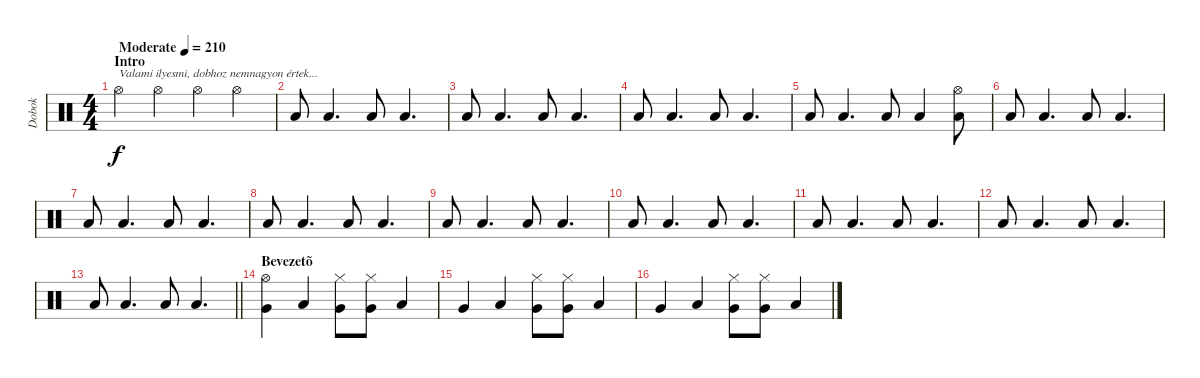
\track ("Dobok" "Dobok") {instrument percussion}
\staff {score}
\articulation defaults
\ts (4 4)
\section ("" "Intro")
\tempo (210 "Moderate")
\clef neutral
\ks c "Hi-Hat (open)".4{txt "Valami ilyesmi, dobhoz nemnagyon értek..." dy f} "Hi-Hat (open)".4 "Hi-Hat (open)".4 "Hi-Hat (open)".4
|
"Low Floor Tom (hit)".8 "Low Floor Tom (hit)".4{d} "Low Floor Tom (hit)".8 "Low Floor Tom (hit)".4{d} |
"Low Tom (hit)".8 "Low Tom (hit)".4{d} "Low Tom (hit)".8 "Low Tom (hit)".4{d} |
"Low Floor Tom (hit)".8 "Low Floor Tom (hit)".4{d} "Low Floor Tom (hit)".8 "Low Floor Tom (hit)".4{d} |
"Low Tom (hit)".8 "Low Tom (hit)".4{d} "Low Tom (hit)".8 "Low Tom (hit)".4 ("Hi-Hat (open)" "Low Tom (hit)").8 |
"Low Floor Tom (hit)".8 "Low Floor Tom (hit)".4{d} "Low Floor Tom (hit)".8 "Low Floor Tom (hit)".4{d} |
"Low Tom (hit)".8 "Low Tom (hit)".4{d} "Low Tom (hit)".8 "Low Tom (hit)".4{d} |
"Low Floor Tom (hit)".8 "Low Floor Tom (hit)".4{d} "Low Floor Tom (hit)".8 "Low Floor Tom (hit)".4{d} |
"Low Tom (hit)".8 "Low Tom (hit)".4{d} "Low Tom (hit)".8 "Low Tom (hit)".4{d} |
"Low Floor Tom (hit)".8 "Low Floor Tom (hit)".4{d} "Low Floor Tom (hit)".8 "Low Floor Tom (hit)".4{d} |
"Low Tom (hit)".8 "Low Tom (hit)".4{d} "Low Tom (hit)".8 "Low Tom (hit)".4{d} |
"Low Floor Tom (hit)".8 "Low Floor Tom (hit)".4{d} "Low Floor Tom (hit)".8 "Low Floor Tom (hit)".4{d} |
\barLineRight lightlight "Low Tom (hit)".8 "Low Tom (hit)".4{d} "Low Tom (hit)".8 "Low Tom (hit)".4{d}
|
\section ("" "Bevezetõ")
("Hi-Hat (open)" "Very Low Tom (hit)").4 "Low Tom (hit)".4 ("Hi-Hat (closed)" "Very Low Tom (hit)").8 ("Hi-Hat (closed)" "Very Low Tom (hit)").8 "Low Tom (hit)".4 |
"Very Low Tom (hit)".4 "Low Tom (hit)".4 ("Hi-Hat (closed)" "Very Low Tom (hit)").8 ("Hi-Hat (closed)" "Very Low Tom (hit)").8 "Low Tom (hit)".4 |
"Very Low Tom (hit)".4 "Low Tom (hit)".4 ("Hi-Hat (closed)" "Very Low Tom (hit)").8 ("Hi-Hat (closed)" "Very Low Tom (hit)").8 "Low Tom (hit)".4
